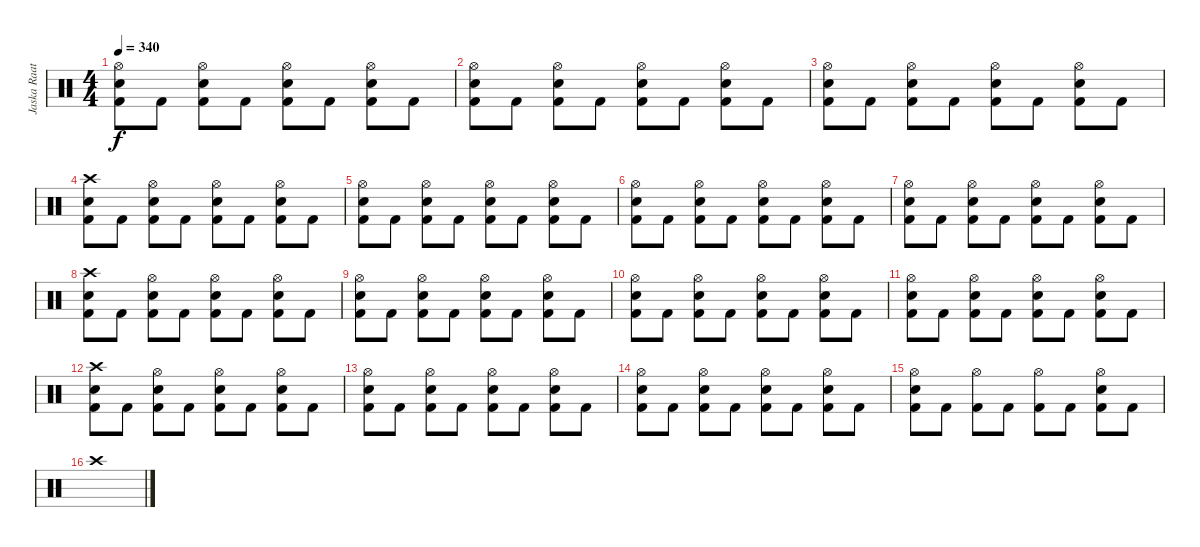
\track ("Jaska Raatkinen" "Jaska Raat") {instrument percussion}
\staff {score}
\articulation defaults
\ts (4 4)
\tempo 340
\clef neutral
\ks c
("Hi-Hat (open)" "Snare (hit) 2" "Kick (hit) 2").8{dy f} "Kick (hit) 2".8 ("Hi-Hat (open)" "Snare (hit) 2" "Kick (hit) 2").8 "Kick (hit) 2".8 ("Hi-Hat (open)" "Snare (hit) 2" "Kick (hit) 2").8 "Kick (hit) 2".8 ("Hi-Hat (open)" "Snare (hit) 2" "Kick (hit) 2").8 "Kick (hit) 2".8 |
("Hi-Hat (open)" "Snare (hit) 2" "Kick (hit) 2").8 "Kick (hit) 2".8 ("Hi-Hat (open)" "Snare (hit) 2" "Kick (hit) 2").8 "Kick (hit) 2".8 ("Hi-Hat (open)" "Snare (hit) 2" "Kick (hit) 2").8 "Kick (hit) 2".8 ("Hi-Hat (open)" "Snare (hit) 2" "Kick (hit) 2").8 "Kick (hit) 2".8 |
("Hi-Hat (open)" "Snare (hit) 2" "Kick (hit) 2").8 "Kick (hit) 2".8 ("Hi-Hat (open)" "Snare (hit) 2" "Kick (hit) 2").8 "Kick (hit) 2".8 ("Hi-Hat (open)" "Snare (hit) 2" "Kick (hit) 2").8 "Kick (hit) 2".8 ("Hi-Hat (open)" "Snare (hit) 2" "Kick (hit) 2").8 "Kick (hit) 2".8 |
("Crash high (hit)" "Snare (hit) 2" "Kick (hit) 2").8 "Kick (hit) 2".8 ("Hi-Hat (open)" "Snare (hit) 2" "Kick (hit) 2").8 "Kick (hit) 2".8 ("Hi-Hat (open)" "Snare (hit) 2" "Kick (hit) 2").8 "Kick (hit) 2".8 ("Hi-Hat (open)" "Snare (hit) 2" "Kick (hit) 2").8 "Kick (hit) 2".8 |
("Hi-Hat (open)" "Snare (hit) 2" "Kick (hit) 2").8 "Kick (hit) 2".8 ("Hi-Hat (open)" "Snare (hit) 2" "Kick (hit) 2").8 "Kick (hit) 2".8 ("Hi-Hat (open)" "Snare (hit) 2" "Kick (hit) 2").8 "Kick (hit) 2".8 ("Hi-Hat (open)" "Snare (hit) 2" "Kick (hit) 2").8 "Kick (hit) 2".8 |
("Hi-Hat (open)" "Snare (hit) 2" "Kick (hit) 2").8 "Kick (hit) 2".8 ("Hi-Hat (open)" "Snare (hit) 2" "Kick (hit) 2").8 "Kick (hit) 2".8 ("Hi-Hat (open)" "Snare (hit) 2" "Kick (hit) 2").8 "Kick (hit) 2".8 ("Hi-Hat (open)" "Snare (hit) 2" "Kick (hit) 2").8 "Kick (hit) 2".8 |
("Hi-Hat (open)" "Snare (hit) 2" "Kick (hit) 2").8 "Kick (hit) 2".8 ("Hi-Hat (open)" "Snare (hit) 2" "Kick (hit) 2").8 "Kick (hit) 2".8 ("Hi-Hat (open)" "Snare (hit) 2" "Kick (hit) 2").8 "Kick (hit) 2".8 ("Hi-Hat (open)" "Snare (hit) 2" "Kick (hit) 2").8 "Kick (hit) 2".8 |
("Crash high (hit)" "Snare (hit) 2" "Kick (hit) 2").8 "Kick (hit) 2".8 ("Hi-Hat (open)" "Snare (hit) 2" "Kick (hit) 2").8 "Kick (hit) 2".8 ("Hi-Hat (open)" "Snare (hit) 2" "Kick (hit) 2").8 "Kick (hit) 2".8 ("Hi-Hat (open)" "Snare (hit) 2" "Kick (hit) 2").8 "Kick (hit) 2".8 |
("Hi-Hat (open)" "Snare (hit) 2" "Kick (hit) 2").8 "Kick (hit) 2".8 ("Hi-Hat (open)" "Snare (hit) 2" "Kick (hit) 2").8 "Kick (hit) 2".8 ("Hi-Hat (open)" "Snare (hit) 2" "Kick (hit) 2").8 "Kick (hit) 2".8 ("Hi-Hat (open)" "Snare (hit) 2" "Kick (hit) 2").8 "Kick (hit) 2".8 |
("Hi-Hat (open)" "Snare (hit) 2" "Kick (hit) 2").8 "Kick (hit) 2".8 ("Hi-Hat (open)" "Snare (hit) 2" "Kick (hit) 2").8 "Kick (hit) 2".8 ("Hi-Hat (open)" "Snare (hit) 2" "Kick (hit) 2").8 "Kick (hit) 2".8 ("Hi-Hat (open)" "Snare (hit) 2" "Kick (hit) 2").8 "Kick (hit) 2".8 |
("Hi-Hat (open)" "Snare (hit) 2" "Kick (hit) 2").8 "Kick (hit) 2".8 ("Hi-Hat (open)" "Snare (hit) 2" "Kick (hit) 2").8 "Kick (hit) 2".8 ("Hi-Hat (open)" "Snare (hit) 2" "Kick (hit) 2").8 "Kick (hit) 2".8 ("Hi-Hat (open)" "Snare (hit) 2" "Kick (hit) 2").8 "Kick (hit) 2".8 |
("Crash high (hit)" "Snare (hit) 2" "Kick (hit) 2").8 "Kick (hit) 2".8 ("Hi-Hat (open)" "Snare (hit) 2" "Kick (hit) 2").8 "Kick (hit) 2".8 ("Hi-Hat (open)" "Snare (hit) 2" "Kick (hit) 2").8 "Kick (hit) 2".8 ("Hi-Hat (open)" "Snare (hit) 2" "Kick (hit) 2").8 "Kick (hit) 2".8 |
("Hi-Hat (open)" "Snare (hit) 2" "Kick (hit) 2").8 "Kick (hit) 2".8 ("Hi-Hat (open)" "Snare (hit) 2" "Kick (hit) 2").8 "Kick (hit) 2".8 ("Hi-Hat (open)" "Snare (hit) 2" "Kick (hit) 2").8 "Kick (hit) 2".8 ("Hi-Hat (open)" "Snare (hit) 2" "Kick (hit) 2").8 "Kick (hit) 2".8 |
("Hi-Hat (open)" "Snare (hit) 2" "Kick (hit) 2").8 "Kick (hit) 2".8 ("Hi-Hat (open)" "Snare (hit) 2" "Kick (hit) 2").8 "Kick (hit) 2".8 ("Hi-Hat (open)" "Snare (hit) 2" "Kick (hit) 2").8 "Kick (hit) 2".8 ("Hi-Hat (open)" "Snare (hit) 2" "Kick (hit) 2").8 "Kick (hit) 2".8 |
("Hi-Hat (open)" "Snare (hit) 2" "Kick (hit) 2").8 "Kick (hit) 2".8 ("Hi-Hat (open)" "Kick (hit) 2").8 "Kick (hit) 2".8 ("Hi-Hat (open)" "Kick (hit) 2").8 "Kick (hit) 2".8 ("Hi-Hat (open)" "Snare (hit) 2" "Kick (hit) 2").8 "Kick (hit) 2".8 |
"Crash high (hit)".1
